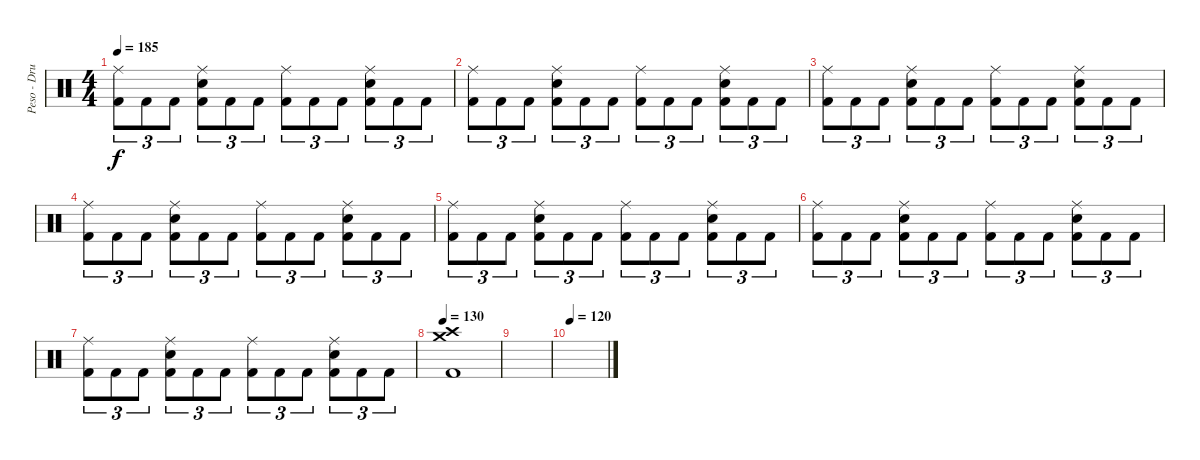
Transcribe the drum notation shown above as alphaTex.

\track ("Peso - Drums" "Peso - Dru") {instrument percussion}
\staff {score}
\articulation defaults
\ts (4 4)
\tempo 185
\clef neutral
\ks c
("Ride (middle)" "Kick (hit) 2").8{tu (3 2) dy f} "Kick (hit) 2".8{tu (3 2)} "Kick (hit) 2".8{tu (3 2)} ("Ride (middle)" "Electric Snare (hit)" "Kick (hit) 2").8{tu (3 2)} "Kick (hit) 2".8{tu (3 2)} "Kick (hit) 2".8{tu (3 2)} ("Ride (middle)" "Kick (hit) 2").8{tu (3 2)} "Kick (hit) 2".8{tu (3 2)} "Kick (hit) 2".8{tu (3 2)} ("Ride (middle)" "Electric Snare (hit)" "Kick (hit) 2").8{tu (3 2)} "Kick (hit) 2".8{tu (3 2)} "Kick (hit) 2".8{tu (3 2)} |
("Ride (middle)" "Kick (hit) 2").8{tu (3 2)} "Kick (hit) 2".8{tu (3 2)} "Kick (hit) 2".8{tu (3 2)} ("Ride (middle)" "Electric Snare (hit)" "Kick (hit) 2").8{tu (3 2)} "Kick (hit) 2".8{tu (3 2)} "Kick (hit) 2".8{tu (3 2)} ("Ride (middle)" "Kick (hit) 2").8{tu (3 2)} "Kick (hit) 2".8{tu (3 2)} "Kick (hit) 2".8{tu (3 2)} ("Ride (middle)" "Electric Snare (hit)" "Kick (hit) 2").8{tu (3 2)} "Kick (hit) 2".8{tu (3 2)} "Kick (hit) 2".8{tu (3 2)} |
("Ride (middle)" "Kick (hit) 2").8{tu (3 2)} "Kick (hit) 2".8{tu (3 2)} "Kick (hit) 2".8{tu (3 2)} ("Ride (middle)" "Electric Snare (hit)" "Kick (hit) 2").8{tu (3 2)} "Kick (hit) 2".8{tu (3 2)} "Kick (hit) 2".8{tu (3 2)} ("Ride (middle)" "Kick (hit) 2").8{tu (3 2)} "Kick (hit) 2".8{tu (3 2)} "Kick (hit) 2".8{tu (3 2)} ("Ride (middle)" "Electric Snare (hit)" "Kick (hit) 2").8{tu (3 2)} "Kick (hit) 2".8{tu (3 2)} "Kick (hit) 2".8{tu (3 2)} |
("Ride (middle)" "Kick (hit) 2").8{tu (3 2)} "Kick (hit) 2".8{tu (3 2)} "Kick (hit) 2".8{tu (3 2)} ("Ride (middle)" "Electric Snare (hit)" "Kick (hit) 2").8{tu (3 2)} "Kick (hit) 2".8{tu (3 2)} "Kick (hit) 2".8{tu (3 2)} ("Ride (middle)" "Kick (hit) 2").8{tu (3 2)} "Kick (hit) 2".8{tu (3 2)} "Kick (hit) 2".8{tu (3 2)} ("Ride (middle)" "Electric Snare (hit)" "Kick (hit) 2").8{tu (3 2)} "Kick (hit) 2".8{tu (3 2)} "Kick (hit) 2".8{tu (3 2)} |
("Ride (middle)" "Kick (hit) 2").8{tu (3 2)} "Kick (hit) 2".8{tu (3 2)} "Kick (hit) 2".8{tu (3 2)} ("Ride (middle)" "Electric Snare (hit)" "Kick (hit) 2").8{tu (3 2)} "Kick (hit) 2".8{tu (3 2)} "Kick (hit) 2".8{tu (3 2)} ("Ride (middle)" "Kick (hit) 2").8{tu (3 2)} "Kick (hit) 2".8{tu (3 2)} "Kick (hit) 2".8{tu (3 2)} ("Ride (middle)" "Electric Snare (hit)" "Kick (hit) 2").8{tu (3 2)} "Kick (hit) 2".8{tu (3 2)} "Kick (hit) 2".8{tu (3 2)} |
("Ride (middle)" "Kick (hit) 2").8{tu (3 2)} "Kick (hit) 2".8{tu (3 2)} "Kick (hit) 2".8{tu (3 2)} ("Ride (middle)" "Electric Snare (hit)" "Kick (hit) 2").8{tu (3 2)} "Kick (hit) 2".8{tu (3 2)} "Kick (hit) 2".8{tu (3 2)} ("Ride (middle)" "Kick (hit) 2").8{tu (3 2)} "Kick (hit) 2".8{tu (3 2)} "Kick (hit) 2".8{tu (3 2)} ("Ride (middle)" "Electric Snare (hit)" "Kick (hit) 2").8{tu (3 2)} "Kick (hit) 2".8{tu (3 2)} "Kick (hit) 2".8{tu (3 2)} |
("Ride (middle)" "Kick (hit) 2").8{tu (3 2)} "Kick (hit) 2".8{tu (3 2)} "Kick (hit) 2".8{tu (3 2)} ("Ride (middle)" "Electric Snare (hit)" "Kick (hit) 2").8{tu (3 2)} "Kick (hit) 2".8{tu (3 2)} "Kick (hit) 2".8{tu (3 2)} ("Ride (middle)" "Kick (hit) 2").8{tu (3 2)} "Kick (hit) 2".8{tu (3 2)} "Kick (hit) 2".8{tu (3 2)} ("Ride (middle)" "Electric Snare (hit)" "Kick (hit) 2").8{tu (3 2)} "Kick (hit) 2".8{tu (3 2)} "Kick (hit) 2".8{tu (3 2)} |
\tempo 130
("Crash medium (hit)" "Crash high (hit)" "Kick (hit) 2").1 |
|
\tempo 120
